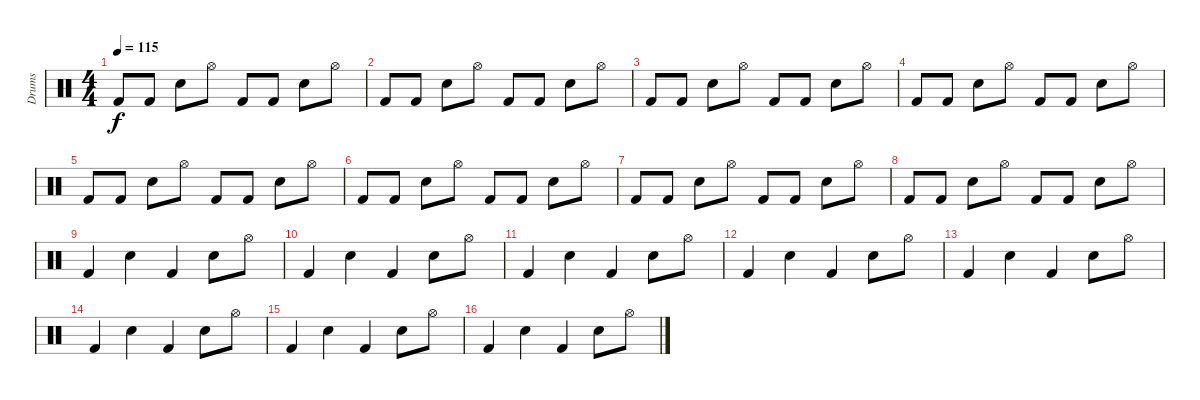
\track ("Drums" "Drums") {instrument percussion}
\staff {score}
\articulation defaults
\ts (4 4)
\tempo 115
\clef neutral
\ks c "Kick (hit) 2".8{dy f} "Kick (hit) 2".8 "Electric Snare (hit)".8 "Hi-Hat (open)".8 "Kick (hit) 2".8 "Kick (hit) 2".8 "Electric Snare (hit)".8 "Hi-Hat (open)".8
|
"Kick (hit) 2".8 "Kick (hit) 2".8 "Electric Snare (hit)".8 "Hi-Hat (open)".8 "Kick (hit) 2".8 "Kick (hit) 2".8 "Electric Snare (hit)".8 "Hi-Hat (open)".8 |
"Kick (hit) 2".8 "Kick (hit) 2".8 "Electric Snare (hit)".8 "Hi-Hat (open)".8 "Kick (hit) 2".8 "Kick (hit) 2".8 "Electric Snare (hit)".8 "Hi-Hat (open)".8 |
"Kick (hit) 2".8 "Kick (hit) 2".8 "Electric Snare (hit)".8 "Hi-Hat (open)".8 "Kick (hit) 2".8 "Kick (hit) 2".8 "Electric Snare (hit)".8 "Hi-Hat (open)".8 |
"Kick (hit) 2".8 "Kick (hit) 2".8 "Electric Snare (hit)".8 "Hi-Hat (open)".8 "Kick (hit) 2".8 "Kick (hit) 2".8 "Electric Snare (hit)".8 "Hi-Hat (open)".8 |
"Kick (hit) 2".8 "Kick (hit) 2".8 "Electric Snare (hit)".8 "Hi-Hat (open)".8 "Kick (hit) 2".8 "Kick (hit) 2".8 "Electric Snare (hit)".8 "Hi-Hat (open)".8 |
"Kick (hit) 2".8 "Kick (hit) 2".8 "Electric Snare (hit)".8 "Hi-Hat (open)".8 "Kick (hit) 2".8 "Kick (hit) 2".8 "Electric Snare (hit)".8 "Hi-Hat (open)".8 |
"Kick (hit) 2".8 "Kick (hit) 2".8 "Electric Snare (hit)".8 "Hi-Hat (open)".8 "Kick (hit) 2".8 "Kick (hit) 2".8 "Electric Snare (hit)".8 "Hi-Hat (open)".8 |
"Kick (hit) 2".4 "Electric Snare (hit)".4 "Kick (hit) 2".4 "Electric Snare (hit)".8 "Hi-Hat (open)".8 |
"Kick (hit) 2".4 "Electric Snare (hit)".4 "Kick (hit) 2".4 "Electric Snare (hit)".8 "Hi-Hat (open)".8 |
"Kick (hit) 2".4 "Electric Snare (hit)".4 "Kick (hit) 2".4 "Electric Snare (hit)".8 "Hi-Hat (open)".8 |
"Kick (hit) 2".4 "Electric Snare (hit)".4 "Kick (hit) 2".4 "Electric Snare (hit)".8 "Hi-Hat (open)".8 |
"Kick (hit) 2".4 "Electric Snare (hit)".4 "Kick (hit) 2".4 "Electric Snare (hit)".8 "Hi-Hat (open)".8 |
"Kick (hit) 2".4 "Electric Snare (hit)".4 "Kick (hit) 2".4 "Electric Snare (hit)".8 "Hi-Hat (open)".8 |
"Kick (hit) 2".4 "Electric Snare (hit)".4 "Kick (hit) 2".4 "Electric Snare (hit)".8 "Hi-Hat (open)".8 |
"Kick (hit) 2".4 "Electric Snare (hit)".4 "Kick (hit) 2".4 "Electric Snare (hit)".8 "Hi-Hat (open)".8
